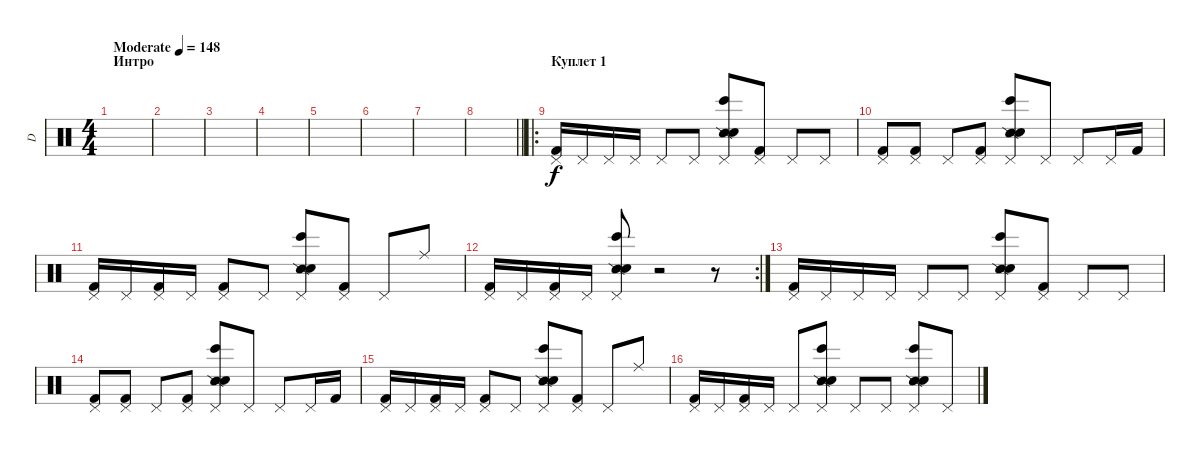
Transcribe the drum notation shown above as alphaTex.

\track ("D" "D") {instrument percussion}
\staff {score}
\articulation defaults
\ts (4 4)
\section ("" "Интро")
\tempo (148 "Moderate")
\clef neutral
\ks c
|
|
|
|
|
|
|
\barLineRight lightlight
|
\ro
\section ("" "Куплет 1")
("Kick (hit) 2" "Pedal Hi-Hat (hit)").16 "Pedal Hi-Hat (hit)".16 "Pedal Hi-Hat (hit)".16 "Pedal Hi-Hat (hit)".16 "Pedal Hi-Hat (hit)".8 "Pedal Hi-Hat (hit)".8 ("Bongo High (hit)" "Snare (side stick) 2" "Electric Snare (hit)" "Pedal Hi-Hat (hit)").8 ("Kick (hit) 2" "Pedal Hi-Hat (hit)").8 "Pedal Hi-Hat (hit)".8 "Pedal Hi-Hat (hit)".8 |
("Kick (hit) 2" "Pedal Hi-Hat (hit)").8 ("Kick (hit) 2" "Pedal Hi-Hat (hit)").8 "Pedal Hi-Hat (hit)".8 ("Kick (hit) 2" "Pedal Hi-Hat (hit)").8 ("Bongo High (hit)" "Snare (side stick) 2" "Electric Snare (hit)" "Pedal Hi-Hat (hit)").8 "Pedal Hi-Hat (hit)".8 "Pedal Hi-Hat (hit)".8 "Pedal Hi-Hat (hit)".16 "Kick (hit) 2".16 |
("Kick (hit) 2" "Pedal Hi-Hat (hit)").16 "Pedal Hi-Hat (hit)".16 ("Kick (hit) 2" "Pedal Hi-Hat (hit)").16 "Pedal Hi-Hat (hit)".16 ("Kick (hit) 2" "Pedal Hi-Hat (hit)").8 "Pedal Hi-Hat (hit)".8 ("Bongo High (hit)" "Snare (side stick) 2" "Electric Snare (hit)" "Pedal Hi-Hat (hit)").8 ("Kick (hit) 2" "Pedal Hi-Hat (hit)").8 "Pedal Hi-Hat (hit)".8 "Ride (middle)".8 |
\rc 2
("Kick (hit) 2" "Pedal Hi-Hat (hit)").16 "Pedal Hi-Hat (hit)".16 ("Kick (hit) 2" "Pedal Hi-Hat (hit)").16 "Pedal Hi-Hat (hit)".16 ("Bongo High (hit)" "Snare (side stick) 2" "Electric Snare (hit)" "Pedal Hi-Hat (hit)").8 r.2 r.8 |
("Kick (hit) 2" "Pedal Hi-Hat (hit)").16 "Pedal Hi-Hat (hit)".16 "Pedal Hi-Hat (hit)".16 "Pedal Hi-Hat (hit)".16 "Pedal Hi-Hat (hit)".8 "Pedal Hi-Hat (hit)".8 ("Bongo High (hit)" "Snare (side stick) 2" "Electric Snare (hit)" "Pedal Hi-Hat (hit)").8 ("Kick (hit) 2" "Pedal Hi-Hat (hit)").8 "Pedal Hi-Hat (hit)".8 "Pedal Hi-Hat (hit)".8 |
("Kick (hit) 2" "Pedal Hi-Hat (hit)").8 ("Kick (hit) 2" "Pedal Hi-Hat (hit)").8 "Pedal Hi-Hat (hit)".8 ("Kick (hit) 2" "Pedal Hi-Hat (hit)").8 ("Bongo High (hit)" "Snare (side stick) 2" "Electric Snare (hit)" "Pedal Hi-Hat (hit)").8 "Pedal Hi-Hat (hit)".8 "Pedal Hi-Hat (hit)".8 "Pedal Hi-Hat (hit)".16 "Kick (hit) 2".16 |
("Kick (hit) 2" "Pedal Hi-Hat (hit)").16 "Pedal Hi-Hat (hit)".16 ("Kick (hit) 2" "Pedal Hi-Hat (hit)").16 "Pedal Hi-Hat (hit)".16 ("Kick (hit) 2" "Pedal Hi-Hat (hit)").8 "Pedal Hi-Hat (hit)".8 ("Bongo High (hit)" "Snare (side stick) 2" "Electric Snare (hit)" "Pedal Hi-Hat (hit)").8 ("Kick (hit) 2" "Pedal Hi-Hat (hit)").8 "Pedal Hi-Hat (hit)".8 "Ride (middle)".8 |
("Kick (hit) 2" "Pedal Hi-Hat (hit)").16 "Pedal Hi-Hat (hit)".16 ("Kick (hit) 2" "Pedal Hi-Hat (hit)").16 "Pedal Hi-Hat (hit)".16 "Pedal Hi-Hat (hit)".8 ("Bongo High (hit)" "Snare (side stick) 2" "Electric Snare (hit)" "Pedal Hi-Hat (hit)").8 "Pedal Hi-Hat (hit)".8 "Pedal Hi-Hat (hit)".8 ("Bongo High (hit)" "Snare (side stick) 2" "Electric Snare (hit)" "Pedal Hi-Hat (hit)").8 "Pedal Hi-Hat (hit)".8
